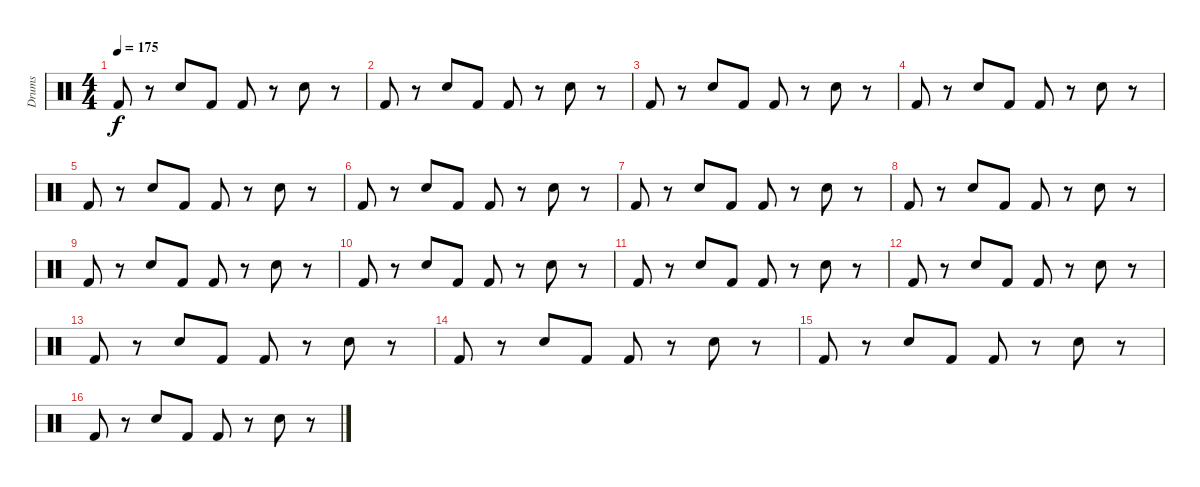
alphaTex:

\track ("Drums" "Drums") {instrument percussion}
\staff {score}
\articulation defaults
\ts (4 4)
\tempo 175
\clef neutral
\ks c "Kick (hit) 2".8{dy f}
r.8 "Electric Snare (hit)".8 "Kick (hit) 2".8 "Kick (hit) 2".8 r.8 "Electric Snare (hit)".8 r.8 |
"Kick (hit) 2".8 r.8 "Electric Snare (hit)".8 "Kick (hit) 2".8 "Kick (hit) 2".8 r.8 "Electric Snare (hit)".8 r.8 |
"Kick (hit) 2".8 r.8 "Electric Snare (hit)".8 "Kick (hit) 2".8 "Kick (hit) 2".8 r.8 "Electric Snare (hit)".8 r.8 |
"Kick (hit) 2".8 r.8 "Electric Snare (hit)".8 "Kick (hit) 2".8 "Kick (hit) 2".8 r.8 "Electric Snare (hit)".8 r.8 |
"Kick (hit) 2".8 r.8 "Electric Snare (hit)".8 "Kick (hit) 2".8 "Kick (hit) 2".8 r.8 "Electric Snare (hit)".8 r.8 |
"Kick (hit) 2".8 r.8 "Electric Snare (hit)".8 "Kick (hit) 2".8 "Kick (hit) 2".8 r.8 "Electric Snare (hit)".8 r.8 |
"Kick (hit) 2".8 r.8 "Electric Snare (hit)".8 "Kick (hit) 2".8 "Kick (hit) 2".8 r.8 "Electric Snare (hit)".8 r.8 |
"Kick (hit) 2".8 r.8 "Electric Snare (hit)".8 "Kick (hit) 2".8 "Kick (hit) 2".8 r.8 "Electric Snare (hit)".8 r.8 |
"Kick (hit) 2".8 r.8 "Electric Snare (hit)".8 "Kick (hit) 2".8 "Kick (hit) 2".8 r.8 "Electric Snare (hit)".8 r.8 |
"Kick (hit) 2".8 r.8 "Electric Snare (hit)".8 "Kick (hit) 2".8 "Kick (hit) 2".8 r.8 "Electric Snare (hit)".8 r.8 |
"Kick (hit) 2".8 r.8 "Electric Snare (hit)".8 "Kick (hit) 2".8 "Kick (hit) 2".8 r.8 "Electric Snare (hit)".8 r.8 |
"Kick (hit) 2".8 r.8 "Electric Snare (hit)".8 "Kick (hit) 2".8 "Kick (hit) 2".8 r.8 "Electric Snare (hit)".8 r.8 |
"Kick (hit) 2".8 r.8 "Electric Snare (hit)".8 "Kick (hit) 2".8 "Kick (hit) 2".8 r.8 "Electric Snare (hit)".8 r.8 |
"Kick (hit) 2".8 r.8 "Electric Snare (hit)".8 "Kick (hit) 2".8 "Kick (hit) 2".8 r.8 "Electric Snare (hit)".8 r.8 |
"Kick (hit) 2".8 r.8 "Electric Snare (hit)".8 "Kick (hit) 2".8 "Kick (hit) 2".8 r.8 "Electric Snare (hit)".8 r.8 |
"Kick (hit) 2".8 r.8 "Electric Snare (hit)".8 "Kick (hit) 2".8 "Kick (hit) 2".8 r.8 "Electric Snare (hit)".8 r.8
